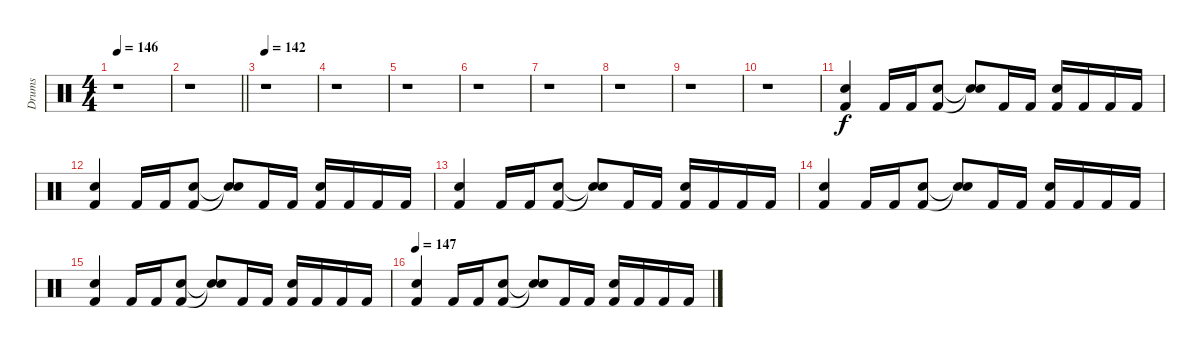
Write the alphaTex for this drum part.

\track ("Drums" "Drums") {instrument percussion}
\staff {score}
\articulation defaults
\ts (4 4)
\tempo 146
\clef neutral
\ks c
r.1{dy f} |
\barLineRight lightlight
r.1 |
\section ("" "")
\tempo 142
r.1 |
r.1 |
r.1 |
r.1 |
r.1 |
r.1 |
r.1 |
r.1 |
("Snare (hit) 2" "Kick (hit) 2").4 "Kick (hit) 2".16 "Kick (hit) 2".16 ("Snare (hit) 2" "Kick (hit) 2").8 ("Snare (hit)"{t} "Snare (hit)"{t}).8 "Kick (hit) 2".16 "Kick (hit) 2".16 ("Snare (hit) 2" "Kick (hit) 2").16 "Kick (hit) 2".16 "Kick (hit) 2".16 "Kick (hit) 2".16 |
("Snare (hit) 2" "Kick (hit) 2").4 "Kick (hit) 2".16 "Kick (hit) 2".16 ("Snare (hit) 2" "Kick (hit) 2").8 ("Snare (hit)"{t} "Snare (hit)"{t}).8 "Kick (hit) 2".16 "Kick (hit) 2".16 ("Snare (hit) 2" "Kick (hit) 2").16 "Kick (hit) 2".16 "Kick (hit) 2".16 "Kick (hit) 2".16 |
("Snare (hit) 2" "Kick (hit) 2").4 "Kick (hit) 2".16 "Kick (hit) 2".16 ("Snare (hit) 2" "Kick (hit) 2").8 ("Snare (hit)"{t} "Snare (hit)"{t}).8 "Kick (hit) 2".16 "Kick (hit) 2".16 ("Snare (hit) 2" "Kick (hit) 2").16 "Kick (hit) 2".16 "Kick (hit) 2".16 "Kick (hit) 2".16 |
("Snare (hit) 2" "Kick (hit) 2").4 "Kick (hit) 2".16 "Kick (hit) 2".16 ("Snare (hit) 2" "Kick (hit) 2").8 ("Snare (hit)"{t} "Snare (hit)"{t}).8 "Kick (hit) 2".16 "Kick (hit) 2".16 ("Snare (hit) 2" "Kick (hit) 2").16 "Kick (hit) 2".16 "Kick (hit) 2".16 "Kick (hit) 2".16 |
("Snare (hit) 2" "Kick (hit) 2").4 "Kick (hit) 2".16 "Kick (hit) 2".16 ("Snare (hit) 2" "Kick (hit) 2").8 ("Snare (hit)"{t} "Snare (hit)"{t}).8 "Kick (hit) 2".16 "Kick (hit) 2".16 ("Snare (hit) 2" "Kick (hit) 2").16 "Kick (hit) 2".16 "Kick (hit) 2".16 "Kick (hit) 2".16 |
\tempo 147
("Snare (hit) 2" "Kick (hit) 2").4 "Kick (hit) 2".16 "Kick (hit) 2".16 ("Snare (hit) 2" "Kick (hit) 2").8 ("Snare (hit)"{t} "Snare (hit)"{t}).8 "Kick (hit) 2".16 "Kick (hit) 2".16 ("Snare (hit) 2" "Kick (hit) 2").16 "Kick (hit) 2".16 "Kick (hit) 2".16 "Kick (hit) 2".16
